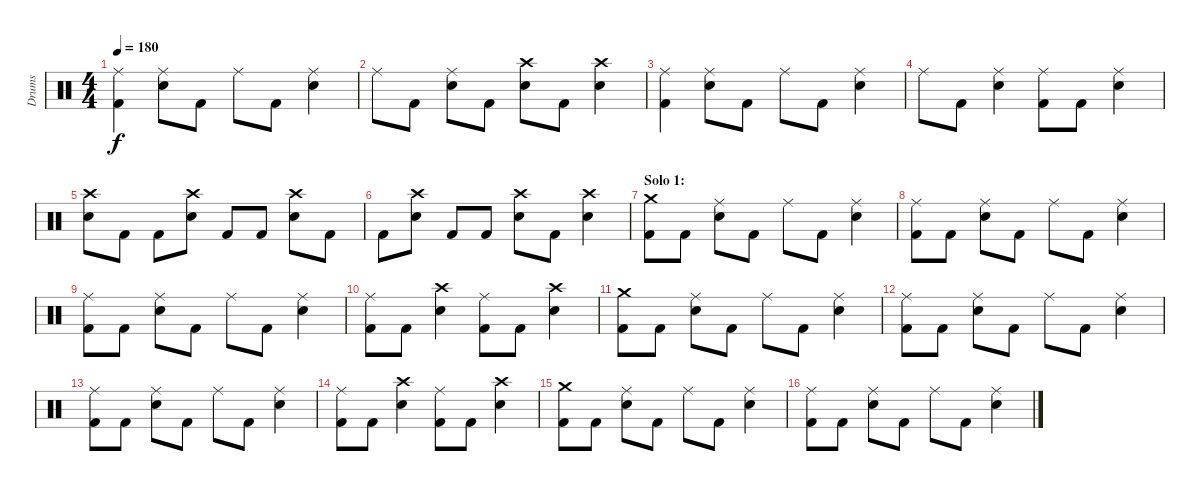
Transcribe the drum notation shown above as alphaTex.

\track ("Drums" "Drums") {instrument percussion}
\staff {score}
\articulation defaults
\ts (4 4)
\tempo 180
\clef neutral
\ks c
("Ride (middle)" "Kick (hit) 2").4{dy f} ("Ride (middle)" "Electric Snare (hit)").8 "Kick (hit) 2".8 "Ride (middle)".8 "Kick (hit) 2".8 ("Ride (middle)" "Electric Snare (hit)").4 |
"Ride (middle)".8 "Kick (hit) 2".8 ("Ride (middle)" "Electric Snare (hit)").8 "Kick (hit) 2".8 ("Crash high (hit)" "Electric Snare (hit)").8 "Kick (hit) 2".8 ("Crash high (hit)" "Electric Snare (hit)").4 |
("Ride (middle)" "Kick (hit) 2").4 ("Ride (middle)" "Electric Snare (hit)").8 "Kick (hit) 2".8 "Ride (middle)".8 "Kick (hit) 2".8 ("Ride (middle)" "Electric Snare (hit)").4 |
"Ride (middle)".8 "Kick (hit) 2".8 ("Ride (middle)" "Electric Snare (hit)").4 ("Ride (middle)" "Kick (hit) 2").8 "Kick (hit) 2".8 ("Ride (middle)" "Electric Snare (hit)").4 |
("Crash high (hit)" "Electric Snare (hit)").8 "Kick (hit) 2".8 "Kick (hit) 2".8 ("Crash high (hit)" "Electric Snare (hit)").8 "Kick (hit) 2".8 "Kick (hit) 2".8 ("Crash high (hit)" "Electric Snare (hit)").8 "Kick (hit) 2".8 |
"Kick (hit) 2".8 ("Crash high (hit)" "Electric Snare (hit)").8 "Kick (hit) 2".8 "Kick (hit) 2".8 ("Crash high (hit)" "Electric Snare (hit)").8 "Kick (hit) 2".8 ("Crash high (hit)" "Electric Snare (hit)").4 |
\section ("" "Solo 1:")
("Crash medium (hit)" "Kick (hit) 2").8 "Kick (hit) 2".8 ("Ride (middle)" "Electric Snare (hit)").8 "Kick (hit) 2".8 "Ride (middle)".8 "Kick (hit) 2".8 ("Ride (middle)" "Electric Snare (hit)").4 |
("Ride (middle)" "Kick (hit) 2").8 "Kick (hit) 2".8 ("Ride (middle)" "Electric Snare (hit)").8 "Kick (hit) 2".8 "Ride (middle)".8 "Kick (hit) 2".8 ("Ride (middle)" "Electric Snare (hit)").4 |
("Ride (middle)" "Kick (hit) 2").8 "Kick (hit) 2".8 ("Ride (middle)" "Electric Snare (hit)").8 "Kick (hit) 2".8 "Ride (middle)".8 "Kick (hit) 2".8 ("Ride (middle)" "Electric Snare (hit)").4 |
("Ride (middle)" "Kick (hit) 2").8 "Kick (hit) 2".8 ("Crash high (hit)" "Electric Snare (hit)").4 ("Ride (middle)" "Kick (hit) 2").8 "Kick (hit) 2".8 ("Crash high (hit)" "Electric Snare (hit)").4 |
("Crash medium (hit)" "Kick (hit) 2").8 "Kick (hit) 2".8 ("Ride (middle)" "Electric Snare (hit)").8 "Kick (hit) 2".8 "Ride (middle)".8 "Kick (hit) 2".8 ("Ride (middle)" "Electric Snare (hit)").4 |
("Ride (middle)" "Kick (hit) 2").8 "Kick (hit) 2".8 ("Ride (middle)" "Electric Snare (hit)").8 "Kick (hit) 2".8 "Ride (middle)".8 "Kick (hit) 2".8 ("Ride (middle)" "Electric Snare (hit)").4 |
("Ride (middle)" "Kick (hit) 2").8 "Kick (hit) 2".8 ("Ride (middle)" "Electric Snare (hit)").8 "Kick (hit) 2".8 "Ride (middle)".8 "Kick (hit) 2".8 ("Ride (middle)" "Electric Snare (hit)").4 |
("Ride (middle)" "Kick (hit) 2").8 "Kick (hit) 2".8 ("Crash high (hit)" "Electric Snare (hit)").4 ("Ride (middle)" "Kick (hit) 2").8 "Kick (hit) 2".8 ("Crash high (hit)" "Electric Snare (hit)").4 |
("Crash medium (hit)" "Kick (hit) 2").8 "Kick (hit) 2".8 ("Ride (middle)" "Electric Snare (hit)").8 "Kick (hit) 2".8 "Ride (middle)".8 "Kick (hit) 2".8 ("Ride (middle)" "Electric Snare (hit)").4 |
("Ride (middle)" "Kick (hit) 2").8 "Kick (hit) 2".8 ("Ride (middle)" "Electric Snare (hit)").8 "Kick (hit) 2".8 "Ride (middle)".8 "Kick (hit) 2".8 ("Ride (middle)" "Electric Snare (hit)").4
